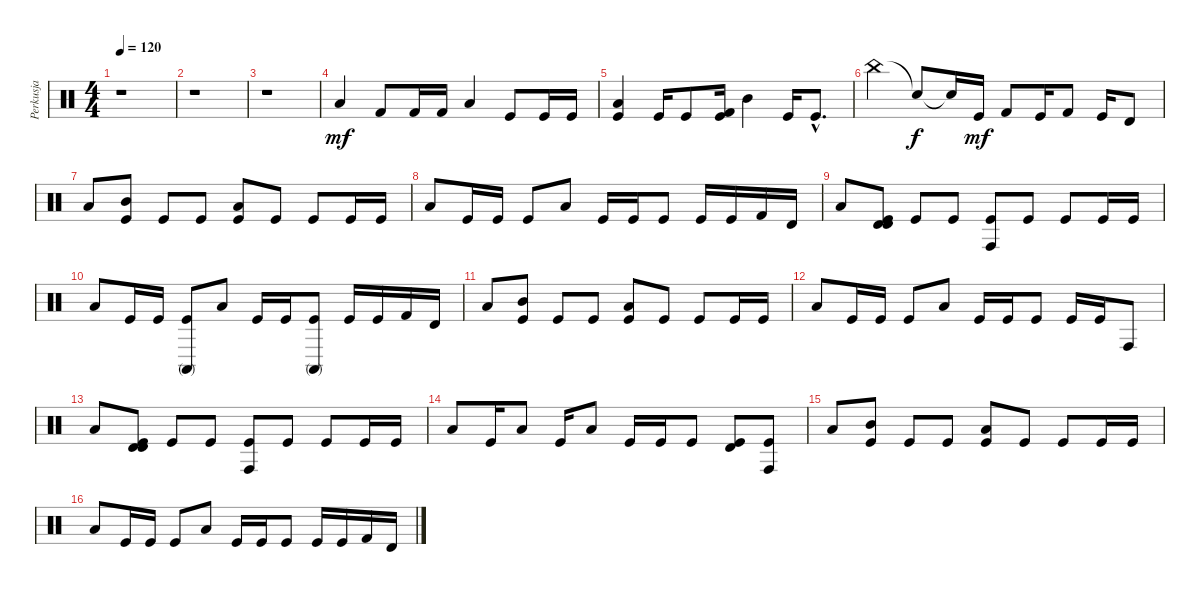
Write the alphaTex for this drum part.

\track ("Perkusja" "Perkusja") {instrument percussion}
\staff {score}
\articulation defaults
\ts (4 4)
\tempo 120
\clef neutral
\ks c
r.1{dy mf} |
r.1 |
r.1 |
"Low Tom (hit)".4 "Kick (hit) 2".8 "Kick (hit) 2".16 "Kick (hit) 2".16 "Low Tom (hit)".4 "Kick (hit)".8 "Kick (hit)".16 "Kick (hit)".16 |
("Low Tom (hit)" "Kick (hit)").4 "Kick (hit)".16 "Kick (hit)".8 ("Kick (hit) 2" "Kick (hit)").16 "Mid Tom (hit)".4 "Kick (hit)".16 "Kick (hit)"{hac}.8{d} |
"China (hit)".4 "Snare (hit)"{t}.8{dy f} "Snare (hit)"{t}.16 "Kick (hit)".16{dy mf} "Kick (hit) 2".8 "Kick (hit)".16 "Kick (hit) 2".8 "Kick (hit)".16 "Timbale high (hit)".8 |
"Low Tom (hit)".8 ("Kick (hit)" "Mid Tom (hit)").8 "Kick (hit)".8 "Kick (hit)".8 ("Kick (hit)" "Low Tom (hit)").8 "Kick (hit)".8 "Kick (hit)".8 "Kick (hit)".16 "Kick (hit)".16 |
"Low Tom (hit)".8 "Kick (hit)".16 "Kick (hit)".16 "Kick (hit)".8 "Low Tom (hit)".8 "Kick (hit)".16 "Kick (hit)".16 "Kick (hit)".8 "Kick (hit)".16 "Kick (hit)".16 "Kick (hit) 2".16 "Timbale high (hit)".16 |
"Low Tom (hit)".8 ("Kick (hit)" "Timbale high (hit)" "Timbale high (hit)").8 "Kick (hit)".8 "Kick (hit)".8 ("Kick (hit)" "Conga high (hit)").8 "Kick (hit)".8 "Kick (hit)".8 "Kick (hit)".16 "Kick (hit)".16 |
"Low Tom (hit)".8 "Kick (hit)".16 "Kick (hit)".16 ("Kick (hit)" "Conga high (mute)").8 "Low Tom (hit)".8 "Kick (hit)".16 "Kick (hit)".16 ("Kick (hit)" "Conga high (mute)").8 "Kick (hit)".16 "Kick (hit)".16 "Kick (hit) 2".16 "Timbale high (hit)".16 |
"Low Tom (hit)".8 ("Kick (hit)" "Mid Tom (hit)").8 "Kick (hit)".8 "Kick (hit)".8 ("Kick (hit)" "Low Tom (hit)").8 "Kick (hit)".8 "Kick (hit)".8 "Kick (hit)".16 "Kick (hit)".16 |
"Low Tom (hit)".8 "Kick (hit)".16 "Kick (hit)".16 "Kick (hit)".8 "Low Tom (hit)".8 "Kick (hit)".16 "Kick (hit)".16 "Kick (hit)".8 "Kick (hit)".16 "Kick (hit)".16 "Conga high (hit)".8 |
"Low Tom (hit)".8 ("Kick (hit)" "Timbale high (hit)" "Timbale high (hit)").8 "Kick (hit)".8 "Kick (hit)".8 ("Kick (hit)" "Conga high (hit)").8 "Kick (hit)".8 "Kick (hit)".8 "Kick (hit)".16 "Kick (hit)".16 |
"Low Tom (hit)".8 "Kick (hit)".16 "Low Tom (hit)".8 "Kick (hit)".16 "Low Tom (hit)".8 "Kick (hit)".16 "Kick (hit)".16 "Kick (hit)".8 ("Kick (hit)" "Timbale high (hit)").8 ("Kick (hit)" "Conga high (hit)").8 |
"Low Tom (hit)".8 ("Kick (hit)" "Mid Tom (hit)").8 "Kick (hit)".8 "Kick (hit)".8 ("Kick (hit)" "Low Tom (hit)").8 "Kick (hit)".8 "Kick (hit)".8 "Kick (hit)".16 "Kick (hit)".16 |
"Low Tom (hit)".8 "Kick (hit)".16 "Kick (hit)".16 "Kick (hit)".8 "Low Tom (hit)".8 "Kick (hit)".16 "Kick (hit)".16 "Kick (hit)".8 "Kick (hit)".16 "Kick (hit)".16 "Kick (hit) 2".16 "Timbale high (hit)".16
